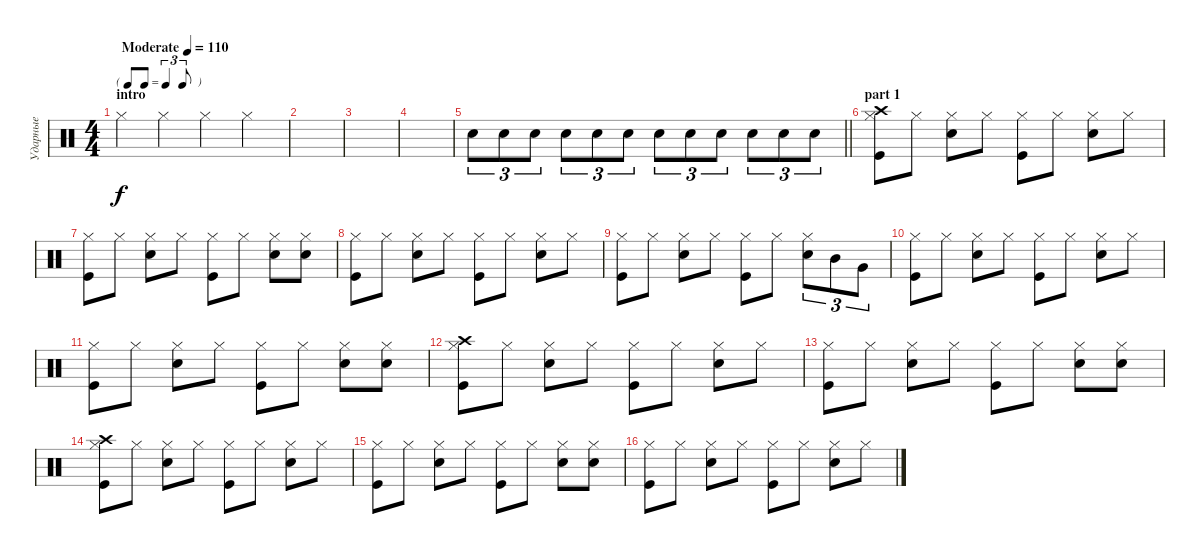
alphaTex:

\track ("Ударные" "Ударные") {instrument percussion}
\staff {score}
\articulation defaults
\ts (4 4)
\tf triplet8th
\section ("" "intro")
\tempo (110 "Moderate")
\clef neutral
\ks c "Hi-Hat (closed)".4{dy f} "Hi-Hat (closed)".4 "Hi-Hat (closed)".4 "Hi-Hat (closed)".4
|
|
|
|
\barLineRight lightlight "Snare (hit) 2".8{tu (3 2)} "Snare (hit) 2".8{tu (3 2)} "Snare (hit) 2".8{tu (3 2)} "Snare (hit) 2".8{tu (3 2)} "Snare (hit) 2".8{tu (3 2)} "Snare (hit) 2".8{tu (3 2)} "Snare (hit) 2".8{tu (3 2)} "Snare (hit) 2".8{tu (3 2)} "Snare (hit) 2".8{tu (3 2)} "Snare (hit) 2".8{tu (3 2)} "Snare (hit) 2".8{tu (3 2)} "Snare (hit) 2".8{tu (3 2)}
|
\section ("" "part 1")
("Hi-Hat (closed)" "Kick (hit)" "Crash high (hit)").8 "Hi-Hat (closed)".8 ("Hi-Hat (closed)" "Snare (hit) 2").8 "Hi-Hat (closed)".8 ("Hi-Hat (closed)" "Kick (hit)").8 "Hi-Hat (closed)".8 ("Hi-Hat (closed)" "Snare (hit) 2").8 "Hi-Hat (closed)".8 |
("Hi-Hat (closed)" "Kick (hit)").8 "Hi-Hat (closed)".8 ("Hi-Hat (closed)" "Snare (hit) 2").8 "Hi-Hat (closed)".8 ("Hi-Hat (closed)" "Kick (hit)").8 "Hi-Hat (closed)".8 ("Hi-Hat (closed)" "Snare (hit) 2").8 ("Hi-Hat (closed)" "Snare (hit) 2").8 |
("Hi-Hat (closed)" "Kick (hit)").8 "Hi-Hat (closed)".8 ("Hi-Hat (closed)" "Snare (hit) 2").8 "Hi-Hat (closed)".8 ("Hi-Hat (closed)" "Kick (hit)").8 "Hi-Hat (closed)".8 ("Hi-Hat (closed)" "Snare (hit) 2").8 "Hi-Hat (closed)".8 |
("Hi-Hat (closed)" "Kick (hit)").8 "Hi-Hat (closed)".8 ("Hi-Hat (closed)" "Snare (hit) 2").8 "Hi-Hat (closed)".8 ("Hi-Hat (closed)" "Kick (hit)").8 "Hi-Hat (closed)".8 ("Hi-Hat (closed)" "Snare (hit) 2").8{tu (3 2)} "Mid Tom (hit)".8{tu (3 2)} "Very Low Tom (hit)".8{tu (3 2)} |
("Hi-Hat (closed)" "Kick (hit)").8 "Hi-Hat (closed)".8 ("Hi-Hat (closed)" "Snare (hit) 2").8 "Hi-Hat (closed)".8 ("Hi-Hat (closed)" "Kick (hit)").8 "Hi-Hat (closed)".8 ("Hi-Hat (closed)" "Snare (hit) 2").8 "Hi-Hat (closed)".8 |
("Hi-Hat (closed)" "Kick (hit)").8 "Hi-Hat (closed)".8 ("Hi-Hat (closed)" "Snare (hit) 2").8 "Hi-Hat (closed)".8 ("Hi-Hat (closed)" "Kick (hit)").8 "Hi-Hat (closed)".8 ("Hi-Hat (closed)" "Snare (hit) 2").8 ("Hi-Hat (closed)" "Snare (hit) 2").8 |
("Hi-Hat (closed)" "Kick (hit)" "Crash high (hit)").8 "Hi-Hat (closed)".8 ("Hi-Hat (closed)" "Snare (hit) 2").8 "Hi-Hat (closed)".8 ("Hi-Hat (closed)" "Kick (hit)").8 "Hi-Hat (closed)".8 ("Hi-Hat (closed)" "Snare (hit) 2").8 "Hi-Hat (closed)".8 |
("Hi-Hat (closed)" "Kick (hit)").8 "Hi-Hat (closed)".8 ("Hi-Hat (closed)" "Snare (hit) 2").8 "Hi-Hat (closed)".8 ("Hi-Hat (closed)" "Kick (hit)").8 "Hi-Hat (closed)".8 ("Hi-Hat (closed)" "Snare (hit) 2").8 ("Hi-Hat (closed)" "Snare (hit) 2").8 |
("Hi-Hat (closed)" "Kick (hit)" "Crash high (hit)").8 "Hi-Hat (closed)".8 ("Hi-Hat (closed)" "Snare (hit) 2").8 "Hi-Hat (closed)".8 ("Hi-Hat (closed)" "Kick (hit)").8 "Hi-Hat (closed)".8 ("Hi-Hat (closed)" "Snare (hit) 2").8 "Hi-Hat (closed)".8 |
("Hi-Hat (closed)" "Kick (hit)").8 "Hi-Hat (closed)".8 ("Hi-Hat (closed)" "Snare (hit) 2").8 "Hi-Hat (closed)".8 ("Hi-Hat (closed)" "Kick (hit)").8 "Hi-Hat (closed)".8 ("Hi-Hat (closed)" "Snare (hit) 2").8 ("Hi-Hat (closed)" "Snare (hit) 2").8 |
("Hi-Hat (closed)" "Kick (hit)").8 "Hi-Hat (closed)".8 ("Hi-Hat (closed)" "Snare (hit) 2").8 "Hi-Hat (closed)".8 ("Hi-Hat (closed)" "Kick (hit)").8 "Hi-Hat (closed)".8 ("Hi-Hat (closed)" "Snare (hit) 2").8 "Hi-Hat (closed)".8
